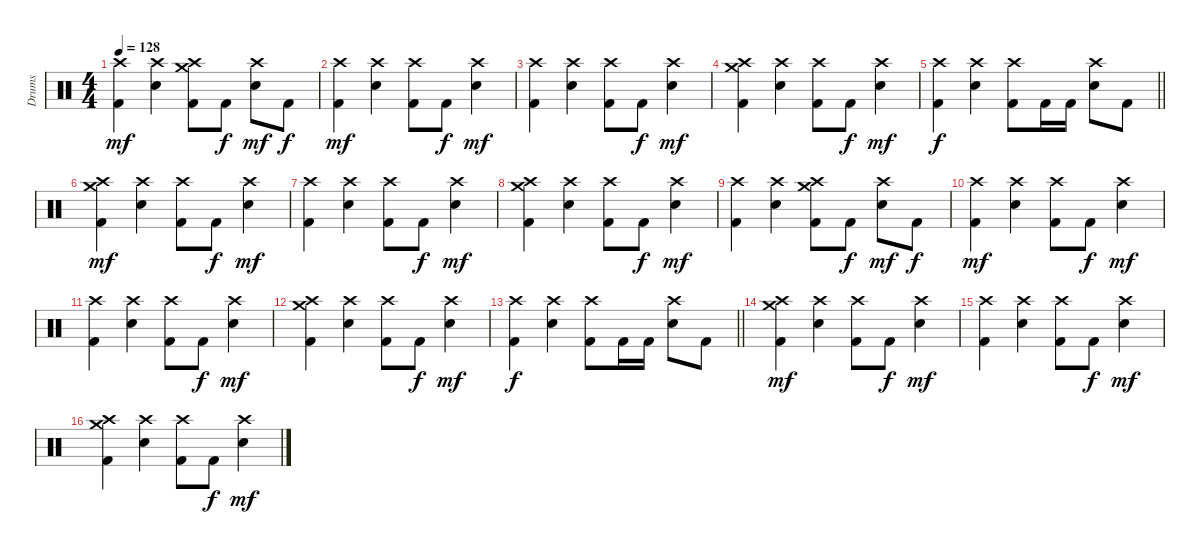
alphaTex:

\track ("Drums" "Drums") {instrument percussion}
\staff {score}
\articulation defaults
\ts (4 4)
\tempo 128
\clef neutral
\ks c
("Crash high (hit)" "Kick (hit) 2").4{dy mf} ("Crash high (hit)" "Electric Snare (hit)").4 ("Crash medium (hit)" "Crash high (hit)" "Kick (hit) 2").8 "Kick (hit) 2".8{dy f} ("Crash high (hit)" "Electric Snare (hit)").8{dy mf} "Kick (hit) 2".8{dy f} |
("Crash high (hit)" "Kick (hit) 2").4{dy mf} ("Crash high (hit)" "Electric Snare (hit)").4 ("Crash high (hit)" "Kick (hit) 2").8 "Kick (hit) 2".8{dy f} ("Crash high (hit)" "Electric Snare (hit)").4{dy mf} |
("Crash high (hit)" "Kick (hit) 2").4 ("Crash high (hit)" "Electric Snare (hit)").4 ("Crash high (hit)" "Kick (hit) 2").8 "Kick (hit) 2".8{dy f} ("Crash high (hit)" "Electric Snare (hit)").4{dy mf} |
("Crash medium (hit)" "Crash high (hit)" "Kick (hit) 2").4 ("Crash high (hit)" "Electric Snare (hit)").4 ("Crash high (hit)" "Kick (hit) 2").8 "Kick (hit) 2".8{dy f} ("Crash high (hit)" "Electric Snare (hit)").4{dy mf} |
\barLineRight lightlight
("Crash high (hit)" "Kick (hit) 2").4{dy f} ("Crash high (hit)" "Electric Snare (hit)").4 ("Crash high (hit)" "Kick (hit) 2").8 "Kick (hit) 2".16 "Kick (hit) 2".16 ("Crash high (hit)" "Electric Snare (hit)").8 "Kick (hit) 2".8 |
("Crash medium (hit)" "Crash high (hit)" "Kick (hit) 2").4{dy mf} ("Crash high (hit)" "Electric Snare (hit)").4 ("Crash high (hit)" "Kick (hit) 2").8 "Kick (hit) 2".8{dy f} ("Crash high (hit)" "Electric Snare (hit)").4{dy mf} |
("Crash high (hit)" "Kick (hit) 2").4 ("Crash high (hit)" "Electric Snare (hit)").4 ("Crash high (hit)" "Kick (hit) 2").8 "Kick (hit) 2".8{dy f} ("Crash high (hit)" "Electric Snare (hit)").4{dy mf} |
("Crash medium (hit)" "Crash high (hit)" "Kick (hit) 2").4 ("Crash high (hit)" "Electric Snare (hit)").4 ("Crash high (hit)" "Kick (hit) 2").8 "Kick (hit) 2".8{dy f} ("Crash high (hit)" "Electric Snare (hit)").4{dy mf} |
("Crash high (hit)" "Kick (hit) 2").4 ("Crash high (hit)" "Electric Snare (hit)").4 ("Crash medium (hit)" "Crash high (hit)" "Kick (hit) 2").8 "Kick (hit) 2".8{dy f} ("Crash high (hit)" "Electric Snare (hit)").8{dy mf} "Kick (hit) 2".8{dy f} |
("Crash high (hit)" "Kick (hit) 2").4{dy mf} ("Crash high (hit)" "Electric Snare (hit)").4 ("Crash high (hit)" "Kick (hit) 2").8 "Kick (hit) 2".8{dy f} ("Crash high (hit)" "Electric Snare (hit)").4{dy mf} |
("Crash high (hit)" "Kick (hit) 2").4 ("Crash high (hit)" "Electric Snare (hit)").4 ("Crash high (hit)" "Kick (hit) 2").8 "Kick (hit) 2".8{dy f} ("Crash high (hit)" "Electric Snare (hit)").4{dy mf} |
("Crash medium (hit)" "Crash high (hit)" "Kick (hit) 2").4 ("Crash high (hit)" "Electric Snare (hit)").4 ("Crash high (hit)" "Kick (hit) 2").8 "Kick (hit) 2".8{dy f} ("Crash high (hit)" "Electric Snare (hit)").4{dy mf} |
\barLineRight lightlight
("Crash high (hit)" "Kick (hit) 2").4{dy f} ("Crash high (hit)" "Electric Snare (hit)").4 ("Crash high (hit)" "Kick (hit) 2").8 "Kick (hit) 2".16 "Kick (hit) 2".16 ("Crash high (hit)" "Electric Snare (hit)").8 "Kick (hit) 2".8 |
("Crash medium (hit)" "Crash high (hit)" "Kick (hit) 2").4{dy mf} ("Crash high (hit)" "Electric Snare (hit)").4 ("Crash high (hit)" "Kick (hit) 2").8 "Kick (hit) 2".8{dy f} ("Crash high (hit)" "Electric Snare (hit)").4{dy mf} |
("Crash high (hit)" "Kick (hit) 2").4 ("Crash high (hit)" "Electric Snare (hit)").4 ("Crash high (hit)" "Kick (hit) 2").8 "Kick (hit) 2".8{dy f} ("Crash high (hit)" "Electric Snare (hit)").4{dy mf} |
("Crash medium (hit)" "Crash high (hit)" "Kick (hit) 2").4 ("Crash high (hit)" "Electric Snare (hit)").4 ("Crash high (hit)" "Kick (hit) 2").8 "Kick (hit) 2".8{dy f} ("Crash high (hit)" "Electric Snare (hit)").4{dy mf}
